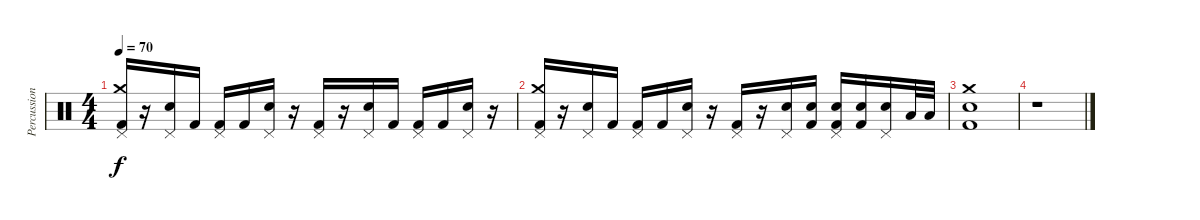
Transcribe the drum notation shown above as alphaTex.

\track ("Percussion" "Percussion") {instrument percussion}
\staff {score}
\articulation defaults
\ts (4 4)
\tempo 70
\clef neutral
\ks c
("Pedal Hi-Hat (hit)" "Crash medium (hit)" "Kick (hit) 2").16{dy f} r.16 ("Pedal Hi-Hat (hit)" "Snare (hit) 2").16 "Kick (hit) 2".16 ("Pedal Hi-Hat (hit)" "Kick (hit) 2").16 "Kick (hit) 2".16 ("Pedal Hi-Hat (hit)" "Snare (hit) 2").16 r.16 ("Pedal Hi-Hat (hit)" "Kick (hit) 2").16 r.16 ("Pedal Hi-Hat (hit)" "Snare (hit) 2").16 "Kick (hit) 2".16 ("Pedal Hi-Hat (hit)" "Kick (hit) 2").16 "Kick (hit) 2".16 ("Pedal Hi-Hat (hit)" "Snare (hit) 2").16 r.16 |
("Pedal Hi-Hat (hit)" "Crash medium (hit)" "Kick (hit) 2").16 r.16 ("Pedal Hi-Hat (hit)" "Snare (hit) 2").16 "Kick (hit) 2".16 ("Pedal Hi-Hat (hit)" "Kick (hit) 2").16 "Kick (hit) 2".16 ("Pedal Hi-Hat (hit)" "Snare (hit) 2").16 r.16 ("Pedal Hi-Hat (hit)" "Kick (hit) 2").16 r.16 ("Pedal Hi-Hat (hit)" "Snare (hit) 2").16 ("Electric Snare (hit)" "Kick (hit) 2").16 ("Pedal Hi-Hat (hit)" "Electric Snare (hit)" "Kick (hit) 2").16 ("Snare (hit) 2" "Kick (hit) 2").16 ("Pedal Hi-Hat (hit)" "Snare (hit) 2").16 "Low Tom (hit)".32 "Low Tom (hit)".32 |
("Crash medium (hit)" "Snare (hit) 2" "Kick (hit) 2").1 |
r.1
